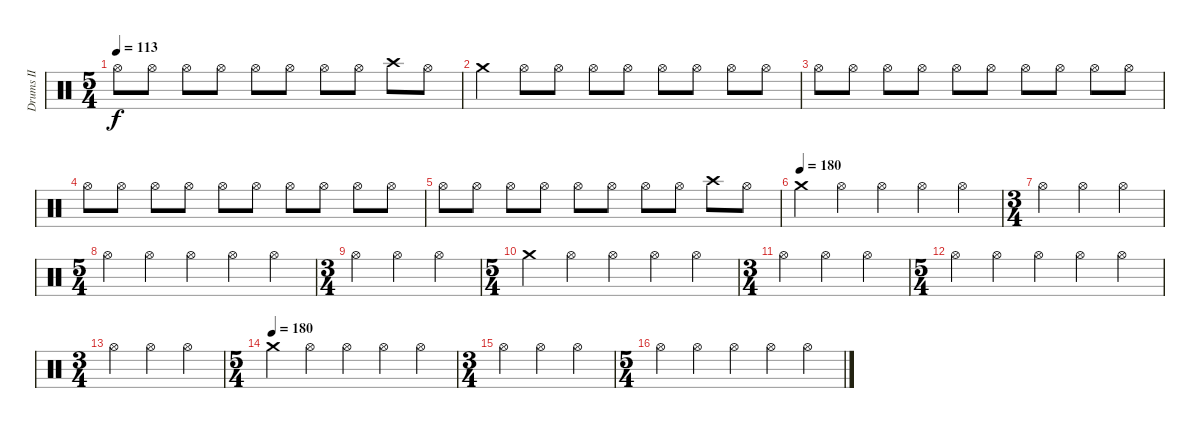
\track ("Drums II" "Drums II") {instrument percussion}
\staff {score}
\articulation defaults
\ts (5 4)
\tempo 113
\clef neutral
\ks c "Hi-Hat (open)".8{dy f} "Hi-Hat (open)".8 "Hi-Hat (open)".8 "Hi-Hat (open)".8 "Hi-Hat (open)".8 "Hi-Hat (open)".8 "Hi-Hat (open)".8 "Hi-Hat (open)".8 "Crash high (hit)".8 "Hi-Hat (open)".8
|
"Crash medium (hit)".4 "Hi-Hat (open)".8 "Hi-Hat (open)".8 "Hi-Hat (open)".8 "Hi-Hat (open)".8 "Hi-Hat (open)".8 "Hi-Hat (open)".8 "Hi-Hat (open)".8 "Hi-Hat (open)".8 |
"Hi-Hat (open)".8 "Hi-Hat (open)".8 "Hi-Hat (open)".8 "Hi-Hat (open)".8 "Hi-Hat (open)".8 "Hi-Hat (open)".8 "Hi-Hat (open)".8 "Hi-Hat (open)".8 "Hi-Hat (open)".8 "Hi-Hat (open)".8 |
"Hi-Hat (open)".8 "Hi-Hat (open)".8 "Hi-Hat (open)".8 "Hi-Hat (open)".8 "Hi-Hat (open)".8 "Hi-Hat (open)".8 "Hi-Hat (open)".8 "Hi-Hat (open)".8 "Hi-Hat (open)".8 "Hi-Hat (open)".8 |
"Hi-Hat (open)".8 "Hi-Hat (open)".8 "Hi-Hat (open)".8 "Hi-Hat (open)".8 "Hi-Hat (open)".8 "Hi-Hat (open)".8 "Hi-Hat (open)".8 "Hi-Hat (open)".8 "Crash high (hit)".8 "Hi-Hat (open)".8 |
\tempo (180)
"Crash medium (hit)".4 "Hi-Hat (open)".4 "Hi-Hat (open)".4 "Hi-Hat (open)".4 "Hi-Hat (open)".4 |
\ts (3 4)
"Hi-Hat (open)".4 "Hi-Hat (open)".4 "Hi-Hat (open)".4 |
\ts (5 4)
"Hi-Hat (open)".4 "Hi-Hat (open)".4 "Hi-Hat (open)".4 "Hi-Hat (open)".4 "Hi-Hat (open)".4 |
\ts (3 4)
"Hi-Hat (open)".4 "Hi-Hat (open)".4 "Hi-Hat (open)".4 |
\ts (5 4)
"Crash medium (hit)".4 "Hi-Hat (open)".4 "Hi-Hat (open)".4 "Hi-Hat (open)".4 "Hi-Hat (open)".4 |
\ts (3 4)
"Hi-Hat (open)".4 "Hi-Hat (open)".4 "Hi-Hat (open)".4 |
\ts (5 4)
"Hi-Hat (open)".4 "Hi-Hat (open)".4 "Hi-Hat (open)".4 "Hi-Hat (open)".4 "Hi-Hat (open)".4 |
\ts (3 4)
"Hi-Hat (open)".4 "Hi-Hat (open)".4 "Hi-Hat (open)".4 |
\ts (5 4)
\tempo (180)
"Crash medium (hit)".4 "Hi-Hat (open)".4 "Hi-Hat (open)".4 "Hi-Hat (open)".4 "Hi-Hat (open)".4 |
\ts (3 4)
"Hi-Hat (open)".4 "Hi-Hat (open)".4 "Hi-Hat (open)".4 |
\ts (5 4)
"Hi-Hat (open)".4 "Hi-Hat (open)".4 "Hi-Hat (open)".4 "Hi-Hat (open)".4 "Hi-Hat (open)".4
